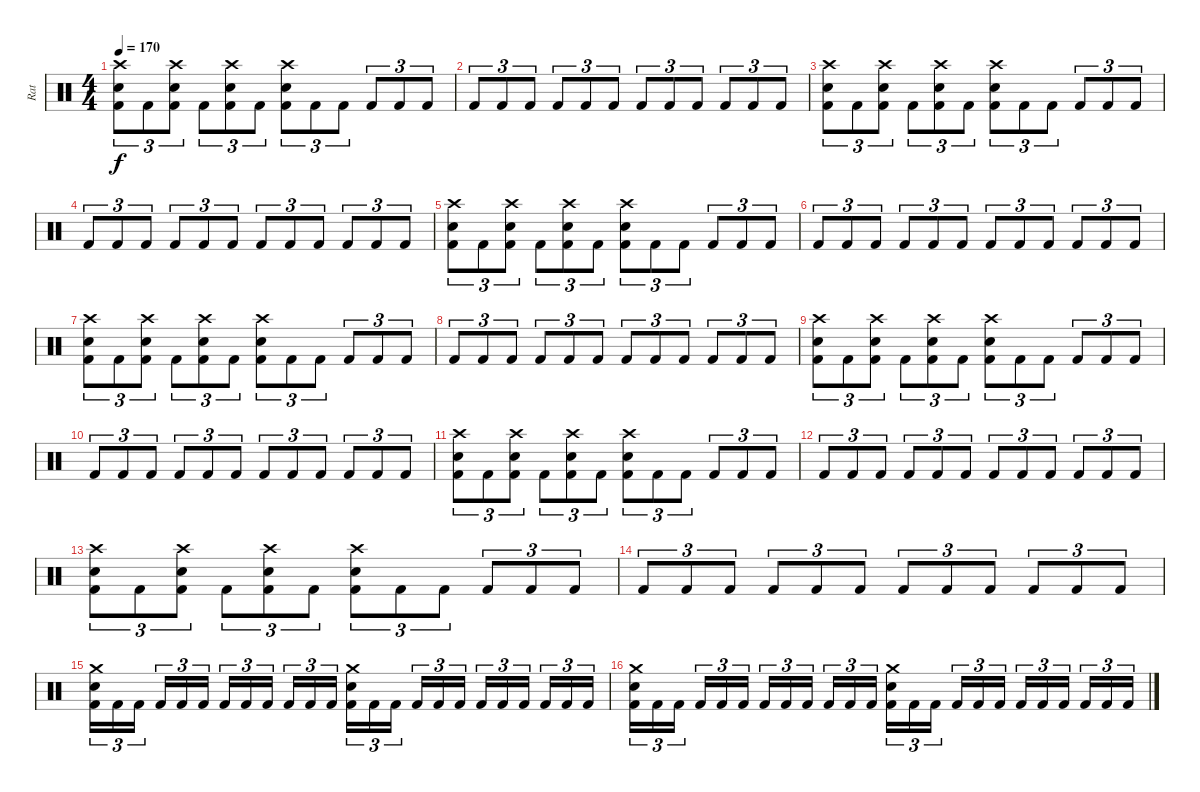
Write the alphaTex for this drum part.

\track ("Rat" "Rat") {instrument percussion}
\staff {score}
\articulation defaults
\ts (4 4)
\tempo 170
\clef neutral
\ks c
("Crash high (hit)" "Snare (hit) 2" "Kick (hit) 2").8{tu (3 2) dy f} "Kick (hit) 2".8{tu (3 2)} ("Crash high (hit)" "Snare (hit) 2" "Kick (hit) 2").8{tu (3 2)} "Kick (hit) 2".8{tu (3 2)} ("Crash high (hit)" "Snare (hit) 2" "Kick (hit) 2").8{tu (3 2)} "Kick (hit) 2".8{tu (3 2)} ("Crash high (hit)" "Snare (hit) 2" "Kick (hit) 2").8{tu (3 2)} "Kick (hit) 2".8{tu (3 2)} "Kick (hit) 2".8{tu (3 2)} "Kick (hit) 2".8{tu (3 2)} "Kick (hit) 2".8{tu (3 2)} "Kick (hit) 2".8{tu (3 2)} |
"Kick (hit) 2".8{tu (3 2)} "Kick (hit) 2".8{tu (3 2)} "Kick (hit) 2".8{tu (3 2)} "Kick (hit) 2".8{tu (3 2)} "Kick (hit) 2".8{tu (3 2)} "Kick (hit) 2".8{tu (3 2)} "Kick (hit) 2".8{tu (3 2)} "Kick (hit) 2".8{tu (3 2)} "Kick (hit) 2".8{tu (3 2)} "Kick (hit) 2".8{tu (3 2)} "Kick (hit) 2".8{tu (3 2)} "Kick (hit) 2".8{tu (3 2)} |
("Crash high (hit)" "Snare (hit) 2" "Kick (hit) 2").8{tu (3 2)} "Kick (hit) 2".8{tu (3 2)} ("Crash high (hit)" "Snare (hit) 2" "Kick (hit) 2").8{tu (3 2)} "Kick (hit) 2".8{tu (3 2)} ("Crash high (hit)" "Snare (hit) 2" "Kick (hit) 2").8{tu (3 2)} "Kick (hit) 2".8{tu (3 2)} ("Crash high (hit)" "Snare (hit) 2" "Kick (hit) 2").8{tu (3 2)} "Kick (hit) 2".8{tu (3 2)} "Kick (hit) 2".8{tu (3 2)} "Kick (hit) 2".8{tu (3 2)} "Kick (hit) 2".8{tu (3 2)} "Kick (hit) 2".8{tu (3 2)} |
"Kick (hit) 2".8{tu (3 2)} "Kick (hit) 2".8{tu (3 2)} "Kick (hit) 2".8{tu (3 2)} "Kick (hit) 2".8{tu (3 2)} "Kick (hit) 2".8{tu (3 2)} "Kick (hit) 2".8{tu (3 2)} "Kick (hit) 2".8{tu (3 2)} "Kick (hit) 2".8{tu (3 2)} "Kick (hit) 2".8{tu (3 2)} "Kick (hit) 2".8{tu (3 2)} "Kick (hit) 2".8{tu (3 2)} "Kick (hit) 2".8{tu (3 2)} |
("Crash high (hit)" "Snare (hit) 2" "Kick (hit) 2").8{tu (3 2)} "Kick (hit) 2".8{tu (3 2)} ("Crash high (hit)" "Snare (hit) 2" "Kick (hit) 2").8{tu (3 2)} "Kick (hit) 2".8{tu (3 2)} ("Crash high (hit)" "Snare (hit) 2" "Kick (hit) 2").8{tu (3 2)} "Kick (hit) 2".8{tu (3 2)} ("Crash high (hit)" "Snare (hit) 2" "Kick (hit) 2").8{tu (3 2)} "Kick (hit) 2".8{tu (3 2)} "Kick (hit) 2".8{tu (3 2)} "Kick (hit) 2".8{tu (3 2)} "Kick (hit) 2".8{tu (3 2)} "Kick (hit) 2".8{tu (3 2)} |
"Kick (hit) 2".8{tu (3 2)} "Kick (hit) 2".8{tu (3 2)} "Kick (hit) 2".8{tu (3 2)} "Kick (hit) 2".8{tu (3 2)} "Kick (hit) 2".8{tu (3 2)} "Kick (hit) 2".8{tu (3 2)} "Kick (hit) 2".8{tu (3 2)} "Kick (hit) 2".8{tu (3 2)} "Kick (hit) 2".8{tu (3 2)} "Kick (hit) 2".8{tu (3 2)} "Kick (hit) 2".8{tu (3 2)} "Kick (hit) 2".8{tu (3 2)} |
("Crash high (hit)" "Snare (hit) 2" "Kick (hit) 2").8{tu (3 2)} "Kick (hit) 2".8{tu (3 2)} ("Crash high (hit)" "Snare (hit) 2" "Kick (hit) 2").8{tu (3 2)} "Kick (hit) 2".8{tu (3 2)} ("Crash high (hit)" "Snare (hit) 2" "Kick (hit) 2").8{tu (3 2)} "Kick (hit) 2".8{tu (3 2)} ("Crash high (hit)" "Snare (hit) 2" "Kick (hit) 2").8{tu (3 2)} "Kick (hit) 2".8{tu (3 2)} "Kick (hit) 2".8{tu (3 2)} "Kick (hit) 2".8{tu (3 2)} "Kick (hit) 2".8{tu (3 2)} "Kick (hit) 2".8{tu (3 2)} |
"Kick (hit) 2".8{tu (3 2)} "Kick (hit) 2".8{tu (3 2)} "Kick (hit) 2".8{tu (3 2)} "Kick (hit) 2".8{tu (3 2)} "Kick (hit) 2".8{tu (3 2)} "Kick (hit) 2".8{tu (3 2)} "Kick (hit) 2".8{tu (3 2)} "Kick (hit) 2".8{tu (3 2)} "Kick (hit) 2".8{tu (3 2)} "Kick (hit) 2".8{tu (3 2)} "Kick (hit) 2".8{tu (3 2)} "Kick (hit) 2".8{tu (3 2)} |
("Crash high (hit)" "Snare (hit) 2" "Kick (hit) 2").8{tu (3 2)} "Kick (hit) 2".8{tu (3 2)} ("Crash high (hit)" "Snare (hit) 2" "Kick (hit) 2").8{tu (3 2)} "Kick (hit) 2".8{tu (3 2)} ("Crash high (hit)" "Snare (hit) 2" "Kick (hit) 2").8{tu (3 2)} "Kick (hit) 2".8{tu (3 2)} ("Crash high (hit)" "Snare (hit) 2" "Kick (hit) 2").8{tu (3 2)} "Kick (hit) 2".8{tu (3 2)} "Kick (hit) 2".8{tu (3 2)} "Kick (hit) 2".8{tu (3 2)} "Kick (hit) 2".8{tu (3 2)} "Kick (hit) 2".8{tu (3 2)} |
"Kick (hit) 2".8{tu (3 2)} "Kick (hit) 2".8{tu (3 2)} "Kick (hit) 2".8{tu (3 2)} "Kick (hit) 2".8{tu (3 2)} "Kick (hit) 2".8{tu (3 2)} "Kick (hit) 2".8{tu (3 2)} "Kick (hit) 2".8{tu (3 2)} "Kick (hit) 2".8{tu (3 2)} "Kick (hit) 2".8{tu (3 2)} "Kick (hit) 2".8{tu (3 2)} "Kick (hit) 2".8{tu (3 2)} "Kick (hit) 2".8{tu (3 2)} |
("Crash high (hit)" "Snare (hit) 2" "Kick (hit) 2").8{tu (3 2)} "Kick (hit) 2".8{tu (3 2)} ("Crash high (hit)" "Snare (hit) 2" "Kick (hit) 2").8{tu (3 2)} "Kick (hit) 2".8{tu (3 2)} ("Crash high (hit)" "Snare (hit) 2" "Kick (hit) 2").8{tu (3 2)} "Kick (hit) 2".8{tu (3 2)} ("Crash high (hit)" "Snare (hit) 2" "Kick (hit) 2").8{tu (3 2)} "Kick (hit) 2".8{tu (3 2)} "Kick (hit) 2".8{tu (3 2)} "Kick (hit) 2".8{tu (3 2)} "Kick (hit) 2".8{tu (3 2)} "Kick (hit) 2".8{tu (3 2)} |
"Kick (hit) 2".8{tu (3 2)} "Kick (hit) 2".8{tu (3 2)} "Kick (hit) 2".8{tu (3 2)} "Kick (hit) 2".8{tu (3 2)} "Kick (hit) 2".8{tu (3 2)} "Kick (hit) 2".8{tu (3 2)} "Kick (hit) 2".8{tu (3 2)} "Kick (hit) 2".8{tu (3 2)} "Kick (hit) 2".8{tu (3 2)} "Kick (hit) 2".8{tu (3 2)} "Kick (hit) 2".8{tu (3 2)} "Kick (hit) 2".8{tu (3 2)} |
("Crash high (hit)" "Snare (hit) 2" "Kick (hit) 2").8{tu (3 2)} "Kick (hit) 2".8{tu (3 2)} ("Crash high (hit)" "Snare (hit) 2" "Kick (hit) 2").8{tu (3 2)} "Kick (hit) 2".8{tu (3 2)} ("Crash high (hit)" "Snare (hit) 2" "Kick (hit) 2").8{tu (3 2)} "Kick (hit) 2".8{tu (3 2)} ("Crash high (hit)" "Snare (hit) 2" "Kick (hit) 2").8{tu (3 2)} "Kick (hit) 2".8{tu (3 2)} "Kick (hit) 2".8{tu (3 2)} "Kick (hit) 2".8{tu (3 2)} "Kick (hit) 2".8{tu (3 2)} "Kick (hit) 2".8{tu (3 2)} |
"Kick (hit) 2".8{tu (3 2)} "Kick (hit) 2".8{tu (3 2)} "Kick (hit) 2".8{tu (3 2)} "Kick (hit) 2".8{tu (3 2)} "Kick (hit) 2".8{tu (3 2)} "Kick (hit) 2".8{tu (3 2)} "Kick (hit) 2".8{tu (3 2)} "Kick (hit) 2".8{tu (3 2)} "Kick (hit) 2".8{tu (3 2)} "Kick (hit) 2".8{tu (3 2)} "Kick (hit) 2".8{tu (3 2)} "Kick (hit) 2".8{tu (3 2)} |
("Kick (hit) 2" "Electric Snare (hit)" "Crash medium (hit)").16{tu (3 2)} "Kick (hit) 2".16{tu (3 2)} "Kick (hit) 2".16{tu (3 2) beam splitsecondary} "Kick (hit) 2".16{tu (3 2)} "Kick (hit) 2".16{tu (3 2)} "Kick (hit) 2".16{tu (3 2)} "Kick (hit) 2".16{tu (3 2)} "Kick (hit) 2".16{tu (3 2)} "Kick (hit) 2".16{tu (3 2) beam splitsecondary} "Kick (hit) 2".16{tu (3 2)} "Kick (hit) 2".16{tu (3 2)} "Kick (hit) 2".16{tu (3 2)} ("Kick (hit) 2" "Electric Snare (hit)" "Crash medium (hit)").16{tu (3 2)} "Kick (hit) 2".16{tu (3 2)} "Kick (hit) 2".16{tu (3 2) beam splitsecondary} "Kick (hit) 2".16{tu (3 2)} "Kick (hit) 2".16{tu (3 2)} "Kick (hit) 2".16{tu (3 2)} "Kick (hit) 2".16{tu (3 2)} "Kick (hit) 2".16{tu (3 2)} "Kick (hit) 2".16{tu (3 2) beam splitsecondary} "Kick (hit) 2".16{tu (3 2)} "Kick (hit) 2".16{tu (3 2)} "Kick (hit) 2".16{tu (3 2)} |
("Kick (hit) 2" "Electric Snare (hit)" "Crash medium (hit)").16{tu (3 2)} "Kick (hit) 2".16{tu (3 2)} "Kick (hit) 2".16{tu (3 2) beam splitsecondary} "Kick (hit) 2".16{tu (3 2)} "Kick (hit) 2".16{tu (3 2)} "Kick (hit) 2".16{tu (3 2)} "Kick (hit) 2".16{tu (3 2)} "Kick (hit) 2".16{tu (3 2)} "Kick (hit) 2".16{tu (3 2) beam splitsecondary} "Kick (hit) 2".16{tu (3 2)} "Kick (hit) 2".16{tu (3 2)} "Kick (hit) 2".16{tu (3 2)} ("Kick (hit) 2" "Electric Snare (hit)" "Crash medium (hit)").16{tu (3 2)} "Kick (hit) 2".16{tu (3 2)} "Kick (hit) 2".16{tu (3 2) beam splitsecondary} "Kick (hit) 2".16{tu (3 2)} "Kick (hit) 2".16{tu (3 2)} "Kick (hit) 2".16{tu (3 2)} "Kick (hit) 2".16{tu (3 2)} "Kick (hit) 2".16{tu (3 2)} "Kick (hit) 2".16{tu (3 2) beam splitsecondary} "Kick (hit) 2".16{tu (3 2)} "Kick (hit) 2".16{tu (3 2)} "Kick (hit) 2".16{tu (3 2)}
